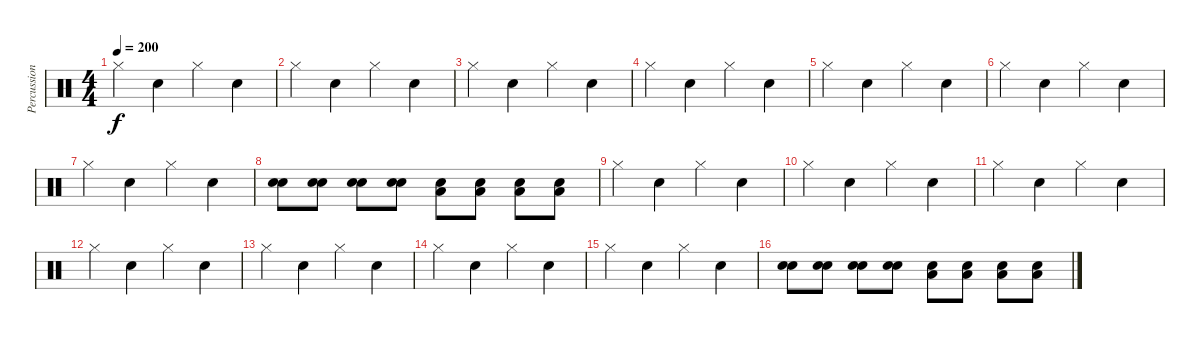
\track ("Percussion" "Percussion") {instrument percussion}
\staff {score}
\articulation defaults
\ts (4 4)
\tempo 200
\clef neutral
\ks c "Hi-Hat (closed)".4{dy f} "Snare (hit) 2".4 "Hi-Hat (closed)".4 "Snare (hit) 2".4
|
"Hi-Hat (closed)".4 "Snare (hit) 2".4 "Hi-Hat (closed)".4 "Snare (hit) 2".4 |
"Hi-Hat (closed)".4 "Snare (hit) 2".4 "Hi-Hat (closed)".4 "Snare (hit) 2".4 |
"Hi-Hat (closed)".4 "Snare (hit) 2".4 "Hi-Hat (closed)".4 "Snare (hit) 2".4 |
"Hi-Hat (closed)".4 "Snare (hit) 2".4 "Hi-Hat (closed)".4 "Snare (hit) 2".4 |
"Hi-Hat (closed)".4 "Snare (hit) 2".4 "Hi-Hat (closed)".4 "Snare (hit) 2".4 |
"Hi-Hat (closed)".4 "Snare (hit) 2".4 "Hi-Hat (closed)".4 "Snare (hit) 2".4 |
("Snare (hit) 2" "Snare (hit) 2").8 ("Snare (hit) 2" "Snare (hit) 2").8 ("Snare (hit) 2" "Snare (hit) 2").8 ("Snare (hit) 2" "Snare (hit) 2").8 ("Low Floor Tom (hit)" "Snare (hit) 2").8 ("Low Floor Tom (hit)" "Snare (hit) 2").8 ("Low Floor Tom (hit)" "Snare (hit) 2").8 ("Low Floor Tom (hit)" "Snare (hit) 2").8 |
"Hi-Hat (closed)".4 "Snare (hit) 2".4 "Hi-Hat (closed)".4 "Snare (hit) 2".4 |
"Hi-Hat (closed)".4 "Snare (hit) 2".4 "Hi-Hat (closed)".4 "Snare (hit) 2".4 |
"Hi-Hat (closed)".4 "Snare (hit) 2".4 "Hi-Hat (closed)".4 "Snare (hit) 2".4 |
"Hi-Hat (closed)".4 "Snare (hit) 2".4 "Hi-Hat (closed)".4 "Snare (hit) 2".4 |
"Hi-Hat (closed)".4 "Snare (hit) 2".4 "Hi-Hat (closed)".4 "Snare (hit) 2".4 |
"Hi-Hat (closed)".4 "Snare (hit) 2".4 "Hi-Hat (closed)".4 "Snare (hit) 2".4 |
"Hi-Hat (closed)".4 "Snare (hit) 2".4 "Hi-Hat (closed)".4 "Snare (hit) 2".4 |
("Snare (hit) 2" "Snare (hit) 2").8 ("Snare (hit) 2" "Snare (hit) 2").8 ("Snare (hit) 2" "Snare (hit) 2").8 ("Snare (hit) 2" "Snare (hit) 2").8 ("Low Floor Tom (hit)" "Snare (hit) 2").8 ("Low Floor Tom (hit)" "Snare (hit) 2").8 ("Low Floor Tom (hit)" "Snare (hit) 2").8 ("Low Floor Tom (hit)" "Snare (hit) 2").8
